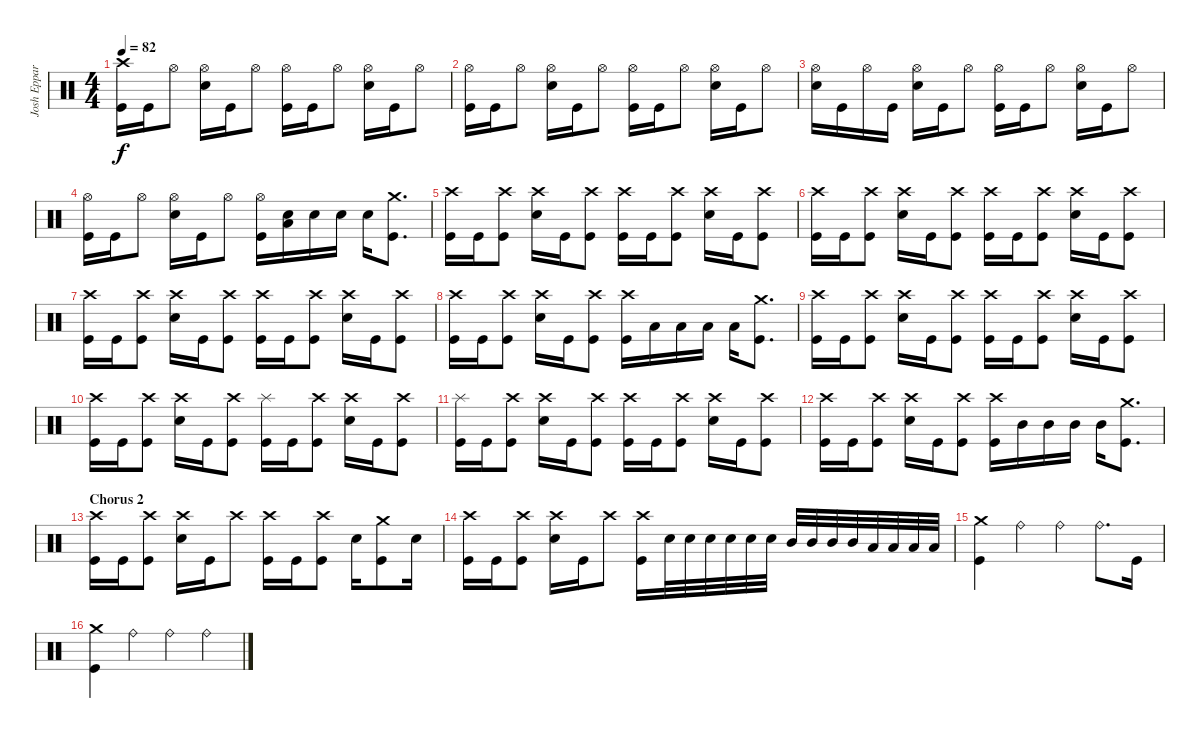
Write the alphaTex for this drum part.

\track ("Josh Eppard" "Josh Eppar") {instrument percussion}
\staff {score}
\articulation defaults
\ts (4 4)
\tempo 82
\clef neutral
\ks c
("Crash high (hit)" "Kick (hit)").16{dy f} "Kick (hit)".16 "Hi-Hat (open)".8 ("Hi-Hat (open)" "Snare (hit) 2").16 "Kick (hit)".16 "Hi-Hat (open)".8 ("Hi-Hat (open)" "Kick (hit)").16 "Kick (hit)".16 "Hi-Hat (open)".8 ("Hi-Hat (open)" "Snare (hit) 2").16 "Kick (hit)".16 "Hi-Hat (open)".8 |
("Kick (hit)" "Hi-Hat (open)").16 "Kick (hit)".16 "Hi-Hat (open)".8 ("Hi-Hat (open)" "Snare (hit) 2").16 "Kick (hit)".16 "Hi-Hat (open)".8 ("Hi-Hat (open)" "Kick (hit)").16 "Kick (hit)".16 "Hi-Hat (open)".8 ("Hi-Hat (open)" "Snare (hit) 2").16 "Kick (hit)".16 "Hi-Hat (open)".8 |
("Hi-Hat (open)" "Snare (hit) 2").16 "Kick (hit)".16 "Hi-Hat (open)".16 "Kick (hit)".16 ("Snare (hit) 2" "Hi-Hat (open)").16 "Kick (hit)".16 "Hi-Hat (open)".8 ("Hi-Hat (open)" "Kick (hit)").16 "Kick (hit)".16 "Hi-Hat (open)".8 ("Hi-Hat (open)" "Snare (hit) 2").16 "Kick (hit)".16 "Hi-Hat (open)".8 |
("Kick (hit)" "Hi-Hat (open)").16 "Kick (hit)".16 "Hi-Hat (open)".8 ("Hi-Hat (open)" "Snare (hit) 2").16 "Kick (hit)".16 "Hi-Hat (open)".8 ("Hi-Hat (open)" "Kick (hit)").16 ("Snare (hit) 2" "Low Tom (hit)").16 "Snare (hit) 2".16 "Snare (hit) 2".16 "Snare (hit) 2".16 ("Kick (hit)" "Crash medium (hit)").8{d} |
("Crash high (hit)" "Kick (hit)").16 "Kick (hit)".16 ("Crash high (hit)" "Kick (hit)").8 ("Crash high (hit)" "Snare (hit) 2").16 "Kick (hit)".16 ("Crash high (hit)" "Kick (hit)").8 ("Crash high (hit)" "Kick (hit)").16 "Kick (hit)".16 ("Crash high (hit)" "Kick (hit)").8 ("Crash high (hit)" "Snare (hit) 2").16 "Kick (hit)".16 ("Crash high (hit)" "Kick (hit)").8 |
("Crash high (hit)" "Kick (hit)").16 "Kick (hit)".16 ("Crash high (hit)" "Kick (hit)").8 ("Crash high (hit)" "Snare (hit) 2").16 "Kick (hit)".16 ("Crash high (hit)" "Kick (hit)").8 ("Crash high (hit)" "Kick (hit)").16 "Kick (hit)".16 ("Crash high (hit)" "Kick (hit)").8 ("Crash high (hit)" "Snare (hit) 2").16 "Kick (hit)".16 ("Crash high (hit)" "Kick (hit)").8 |
("Crash high (hit)" "Kick (hit)").16 "Kick (hit)".16 ("Crash high (hit)" "Kick (hit)").8 ("Crash high (hit)" "Snare (hit) 2").16 "Kick (hit)".16 ("Crash high (hit)" "Kick (hit)").8 ("Crash high (hit)" "Kick (hit)").16 "Kick (hit)".16 ("Crash high (hit)" "Kick (hit)").8 ("Crash high (hit)" "Snare (hit) 2").16 "Kick (hit)".16 ("Crash high (hit)" "Kick (hit)").8 |
("Crash high (hit)" "Kick (hit)").16 "Kick (hit)".16 ("Crash high (hit)" "Kick (hit)").8 ("Crash high (hit)" "Snare (hit) 2").16 "Kick (hit)".16 ("Crash high (hit)" "Kick (hit)").8 ("Crash high (hit)" "Kick (hit)").16 "Low Tom (hit)".16 "Low Tom (hit)".16 "Low Tom (hit)".16 "Low Tom (hit)".16 ("Kick (hit)" "Crash medium (hit)").8{d} |
("Crash high (hit)" "Kick (hit)").16 "Kick (hit)".16 ("Crash high (hit)" "Kick (hit)").8 ("Crash high (hit)" "Snare (hit) 2").16 "Kick (hit)".16 ("Crash high (hit)" "Kick (hit)").8 ("Crash high (hit)" "Kick (hit)").16 "Kick (hit)".16 ("Crash high (hit)" "Kick (hit)").8 ("Crash high (hit)" "Snare (hit) 2").16 "Kick (hit)".16 ("Crash high (hit)" "Kick (hit)").8 |
("Crash high (hit)" "Kick (hit)").16 "Kick (hit)".16 ("Crash high (hit)" "Kick (hit)").8 ("Crash high (hit)" "Snare (hit) 2").16 "Kick (hit)".16 ("Crash high (hit)" "Kick (hit)").8 ("Kick (hit)" "Splash (hit)").16 "Kick (hit)".16 ("Crash high (hit)" "Kick (hit)").8 ("Crash high (hit)" "Snare (hit) 2").16 "Kick (hit)".16 ("Crash high (hit)" "Kick (hit)").8 |
("Kick (hit)" "Splash (hit)").16 "Kick (hit)".16 ("Crash high (hit)" "Kick (hit)").8 ("Crash high (hit)" "Snare (hit) 2").16 "Kick (hit)".16 ("Crash high (hit)" "Kick (hit)").8 ("Crash high (hit)" "Kick (hit)").16 "Kick (hit)".16 ("Crash high (hit)" "Kick (hit)").8 ("Crash high (hit)" "Snare (hit) 2").16 "Kick (hit)".16 ("Crash high (hit)" "Kick (hit)").8 |
("Crash high (hit)" "Kick (hit)").16 "Kick (hit)".16 ("Crash high (hit)" "Kick (hit)").8 ("Crash high (hit)" "Snare (hit) 2").16 "Kick (hit)".16 ("Crash high (hit)" "Kick (hit)").8 ("Crash high (hit)" "Kick (hit)").16 "Mid Tom (hit)".16 "Mid Tom (hit)".16 "Mid Tom (hit)".16 "Mid Tom (hit)".16 ("Kick (hit)" "Crash medium (hit)").8{d} |
\section ("" "Chorus 2")
("Crash high (hit)" "Kick (hit)").16 "Kick (hit)".16 ("Crash high (hit)" "Kick (hit)").8 ("Crash high (hit)" "Snare (hit) 2").16 "Kick (hit)".16 "Crash high (hit)".8 ("Crash high (hit)" "Kick (hit)").16 "Kick (hit)".16 ("Crash high (hit)" "Kick (hit)").8 "Snare (hit) 2".16 ("Kick (hit)" "Crash medium (hit)").8 "Snare (hit) 2".16 |
("Crash high (hit)" "Kick (hit)").16 "Kick (hit)".16 ("Crash high (hit)" "Kick (hit)").8 ("Crash high (hit)" "Snare (hit) 2").16 "Kick (hit)".16 "Crash high (hit)".8 ("Crash high (hit)" "Kick (hit)").16 "Snare (hit) 2".32 "Snare (hit) 2".32 "Snare (hit) 2".32 "Snare (hit) 2".32 "Snare (hit) 2".32 "Snare (hit) 2".32 "Mid Tom (hit)".32 "Mid Tom (hit)".32 "Mid Tom (hit)".32 "Mid Tom (hit)".32 "Low Tom (hit)".32 "Low Tom (hit)".32 "Low Tom (hit)".32 "Low Tom (hit)".32 |
("Kick (hit)" "Crash medium (hit)").4 "Ride (bell)".4 "Ride (bell)".4 "Ride (bell)".8{d} "Kick (hit)".16 |
("Kick (hit)" "Crash medium (hit)").4 "Ride (bell)".4 "Ride (bell)".4 "Ride (bell)".4
